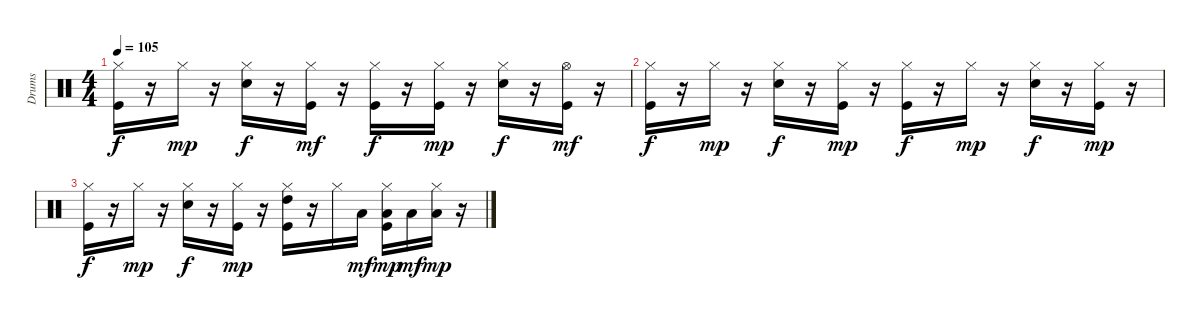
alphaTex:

\track ("Drums   " "Drums   ") {instrument percussion}
\staff {score}
\articulation defaults
\ts (4 4)
\tempo 105
\clef neutral
\ks c
("Kick (hit)" "Hi-Hat (closed)").16{dy f} r.16 "Hi-Hat (closed)".16{dy mp} r.16 ("Snare (hit) 2" "Hi-Hat (closed)").16{dy f} r.16 ("Kick (hit)" "Hi-Hat (closed)").16{dy mf} r.16 ("Kick (hit)" "Hi-Hat (closed)").16{dy f} r.16 ("Kick (hit)" "Hi-Hat (closed)").16{dy mp} r.16 ("Snare (hit) 2" "Hi-Hat (closed)").16{dy f} r.16 ("Kick (hit)" "Hi-Hat (open)").16{dy mf} r.16 |
("Kick (hit)" "Hi-Hat (closed)").16{dy f} r.16 "Hi-Hat (closed)".16{dy mp} r.16 ("Snare (hit) 2" "Hi-Hat (closed)").16{dy f} r.16 ("Kick (hit)" "Hi-Hat (closed)").16{dy mp} r.16 ("Kick (hit)" "Hi-Hat (closed)").16{dy f} r.16 "Hi-Hat (closed)".16{dy mp} r.16 ("Snare (hit) 2" "Hi-Hat (closed)").16{dy f} r.16 ("Kick (hit)" "Hi-Hat (closed)").16{dy mp} r.16 |
("Kick (hit)" "Hi-Hat (closed)").16{dy f} r.16 "Hi-Hat (closed)".16{dy mp} r.16 ("Snare (hit) 2" "Hi-Hat (closed)").16{dy f} r.16 ("Kick (hit)" "Hi-Hat (closed)").16{dy mp} r.16 ("Kick (hit)" "Hi-Hat (closed)" "High Tom (hit)").16 r.16 "Hi-Hat (closed)".16 "Low Tom (hit)".16{dy mf} ("Kick (hit)" "Hi-Hat (closed)" "Low Tom (hit)").16{dy mp} "Low Floor Tom (hit)".16{dy mf} ("Hi-Hat (closed)" "Low Floor Tom (hit)").16{dy mp} r.16
